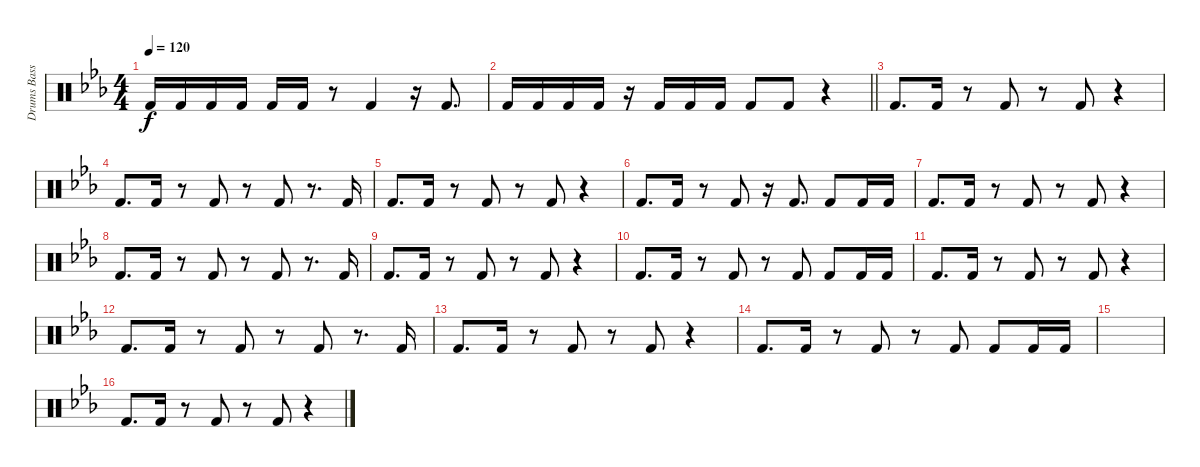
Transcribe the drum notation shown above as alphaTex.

\track ("Drums Bass" "Drums Bass") {instrument percussion}
\staff {score}
\articulation defaults
\ts (4 4)
\tempo 120
\clef neutral
\ks eb "Kick (hit) 2".16{dy f} "Kick (hit) 2".16 "Kick (hit) 2".16 "Kick (hit) 2".16 "Kick (hit) 2".16 "Kick (hit) 2".16
r.8 "Kick (hit) 2".4 r.16 "Kick (hit) 2".8{d} |
\barLineRight lightlight "Kick (hit) 2".16 "Kick (hit) 2".16 "Kick (hit) 2".16 "Kick (hit) 2".16
r.16 "Kick (hit) 2".16 "Kick (hit) 2".16 "Kick (hit) 2".16 "Kick (hit) 2".8 "Kick (hit) 2".8 r.4 |
"Kick (hit) 2".8{d} "Kick (hit) 2".16 r.8 "Kick (hit) 2".8 r.8 "Kick (hit) 2".8 r.4 |
"Kick (hit) 2".8{d} "Kick (hit) 2".16 r.8 "Kick (hit) 2".8 r.8 "Kick (hit) 2".8 r.8{d} "Kick (hit) 2".16 |
"Kick (hit) 2".8{d} "Kick (hit) 2".16 r.8 "Kick (hit) 2".8 r.8 "Kick (hit) 2".8 r.4 |
"Kick (hit) 2".8{d} "Kick (hit) 2".16 r.8 "Kick (hit) 2".8 r.16 "Kick (hit) 2".8{d} "Kick (hit) 2".8 "Kick (hit) 2".16 "Kick (hit) 2".16 |
"Kick (hit) 2".8{d} "Kick (hit) 2".16 r.8 "Kick (hit) 2".8 r.8 "Kick (hit) 2".8 r.4 |
"Kick (hit) 2".8{d} "Kick (hit) 2".16 r.8 "Kick (hit) 2".8 r.8 "Kick (hit) 2".8 r.8{d} "Kick (hit) 2".16 |
"Kick (hit) 2".8{d} "Kick (hit) 2".16 r.8 "Kick (hit) 2".8 r.8 "Kick (hit) 2".8 r.4 |
"Kick (hit) 2".8{d} "Kick (hit) 2".16 r.8 "Kick (hit) 2".8 r.8 "Kick (hit) 2".8 "Kick (hit) 2".8 "Kick (hit) 2".16 "Kick (hit) 2".16 |
"Kick (hit) 2".8{d} "Kick (hit) 2".16 r.8 "Kick (hit) 2".8 r.8 "Kick (hit) 2".8 r.4 |
"Kick (hit) 2".8{d} "Kick (hit) 2".16 r.8 "Kick (hit) 2".8 r.8 "Kick (hit) 2".8 r.8{d} "Kick (hit) 2".16 |
"Kick (hit) 2".8{d} "Kick (hit) 2".16 r.8 "Kick (hit) 2".8 r.8 "Kick (hit) 2".8 r.4 |
"Kick (hit) 2".8{d} "Kick (hit) 2".16 r.8 "Kick (hit) 2".8 r.8 "Kick (hit) 2".8 "Kick (hit) 2".8 "Kick (hit) 2".16 "Kick (hit) 2".16 |
|
"Kick (hit) 2".8{d} "Kick (hit) 2".16 r.8 "Kick (hit) 2".8 r.8 "Kick (hit) 2".8 r.4
